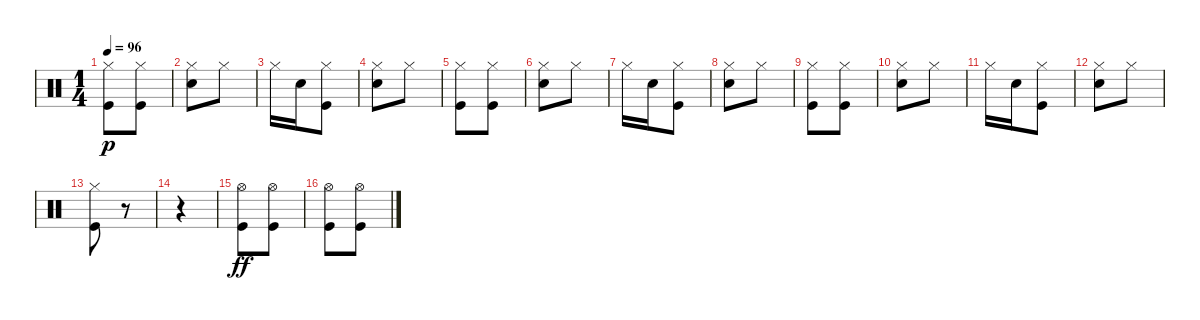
\track "" {instrument percussion}
\staff {score}
\articulation defaults
\ts (1 4)
\tempo 96
\clef neutral
\ks c
("Kick (hit)" "Hi-Hat (closed)").8{dy p} ("Kick (hit)" "Hi-Hat (closed)").8 |
("Snare (hit) 2" "Hi-Hat (closed)").8 "Hi-Hat (closed)".8 |
"Hi-Hat (closed)".16 "Snare (hit) 2".16 ("Kick (hit)" "Hi-Hat (closed)").8 |
("Snare (hit) 2" "Hi-Hat (closed)").8 "Hi-Hat (closed)".8 |
("Kick (hit)" "Hi-Hat (closed)").8 ("Kick (hit)" "Hi-Hat (closed)").8 |
("Snare (hit) 2" "Hi-Hat (closed)").8 "Hi-Hat (closed)".8 |
"Hi-Hat (closed)".16 "Snare (hit) 2".16 ("Kick (hit)" "Hi-Hat (closed)").8 |
("Snare (hit) 2" "Hi-Hat (closed)").8 "Hi-Hat (closed)".8 |
("Kick (hit)" "Hi-Hat (closed)").8 ("Kick (hit)" "Hi-Hat (closed)").8 |
("Snare (hit) 2" "Hi-Hat (closed)").8 "Hi-Hat (closed)".8 |
"Hi-Hat (closed)".16 "Snare (hit) 2".16 ("Kick (hit)" "Hi-Hat (closed)").8 |
("Snare (hit) 2" "Hi-Hat (closed)").8 "Hi-Hat (closed)".8 |
("Kick (hit)" "Hi-Hat (closed)").8 r.8 |
r.4 |
("Kick (hit)" "Hi-Hat (open)").8{dy ff} ("Kick (hit)" "Hi-Hat (open)").8 |
("Kick (hit)" "Hi-Hat (open)").8 ("Kick (hit)" "Hi-Hat (open)").8
